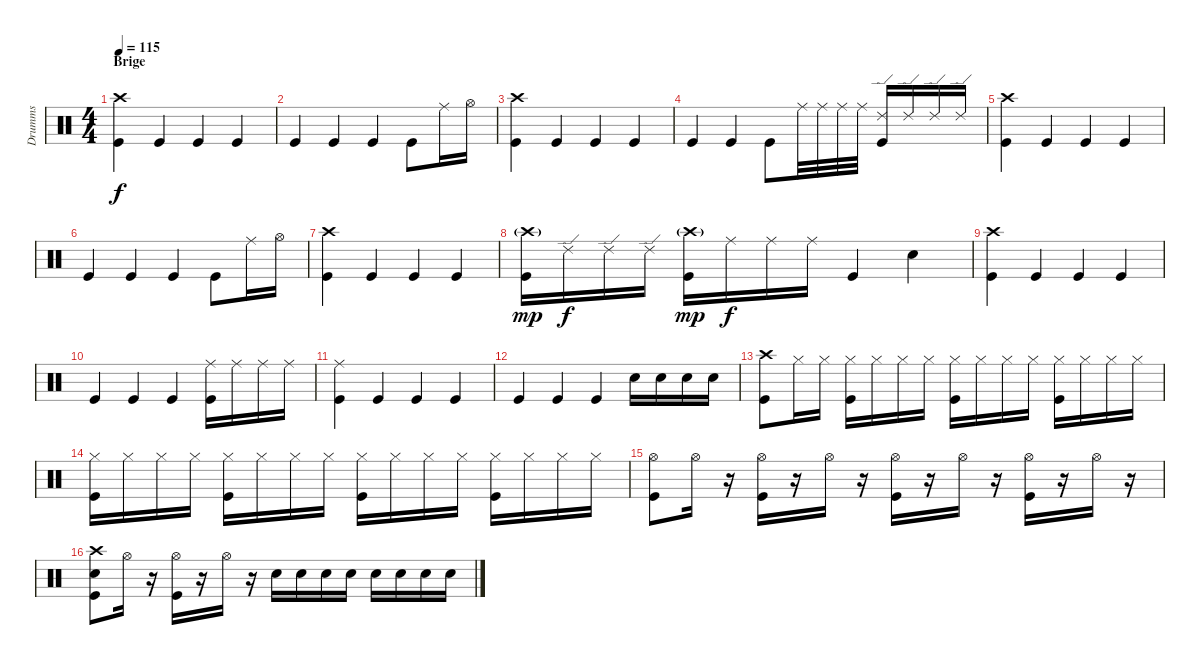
\track ("Drumms" "Drumms") {instrument percussion}
\staff {score}
\articulation defaults
\ts (4 4)
\section ("" "Brige")
\tempo 115
\clef neutral
\ks c
("Crash high (hit)" "Kick (hit)").4{dy f} "Kick (hit)".4 "Kick (hit)".4 "Kick (hit)".4 |
"Kick (hit)".4 "Kick (hit)".4 "Kick (hit)".4 "Kick (hit)".8 "Ride (middle)".16 "Hi-Hat (open)".16 |
("Crash high (hit)" "Kick (hit)").4 "Kick (hit)".4 "Kick (hit)".4 "Kick (hit)".4 |
"Kick (hit)".4 "Kick (hit)".4 "Kick (hit)".8 "Ride (middle)".32 "Ride (middle)".32 "Ride (middle)".32 "Ride (middle)".32 ("Ride (edge) 2" "Kick (hit)").16 "Ride (edge) 2".16 "Ride (edge) 2".16 "Ride (edge) 2".16 |
("Crash high (hit)" "Kick (hit)").4 "Kick (hit)".4 "Kick (hit)".4 "Kick (hit)".4 |
"Kick (hit)".4 "Kick (hit)".4 "Kick (hit)".4 "Kick (hit)".8 "Ride (middle)".16 "Hi-Hat (open)".16 |
("Crash high (hit)" "Kick (hit)").4 "Kick (hit)".4 "Kick (hit)".4 "Kick (hit)".4 |
("Crash high (hit)"{g} "Kick (hit)").16{dy mp} "Ride (edge) 2".16{dy f} "Ride (edge) 2".16 "Ride (edge) 2".16 ("Crash high (hit)"{g} "Kick (hit)").16{dy mp} "Ride (middle)".16{dy f} "Ride (middle)".16 "Ride (middle)".16 "Kick (hit)".4 "Snare (hit) 2".4 |
("Crash high (hit)" "Kick (hit)").4 "Kick (hit)".4 "Kick (hit)".4 "Kick (hit)".4 |
"Kick (hit)".4 "Kick (hit)".4 "Kick (hit)".4 ("Ride (middle)" "Kick (hit)").16 "Ride (middle)".16 "Ride (middle)".16 "Ride (middle)".16 |
("Ride (middle)" "Kick (hit)").4 "Kick (hit)".4 "Kick (hit)".4 "Kick (hit)".4 |
"Kick (hit)".4 "Kick (hit)".4 "Kick (hit)".4 "Snare (hit) 2".16 "Snare (hit) 2".16 "Snare (hit) 2".16 "Snare (hit) 2".16 |
("Crash high (hit)" "Kick (hit)").8 "Hi-Hat (closed)".16 "Hi-Hat (closed)".16 ("Hi-Hat (closed)" "Kick (hit)").16 "Hi-Hat (closed)".16 "Hi-Hat (closed)".16 "Hi-Hat (closed)".16 ("Hi-Hat (closed)" "Kick (hit)").16 "Hi-Hat (closed)".16 "Hi-Hat (closed)".16 "Hi-Hat (closed)".16 ("Hi-Hat (closed)" "Kick (hit)").16 "Hi-Hat (closed)".16 "Hi-Hat (closed)".16 "Hi-Hat (closed)".16 |
("Hi-Hat (closed)" "Kick (hit)").16 "Hi-Hat (closed)".16 "Hi-Hat (closed)".16 "Hi-Hat (closed)".16 ("Hi-Hat (closed)" "Kick (hit)").16 "Hi-Hat (closed)".16 "Hi-Hat (closed)".16 "Hi-Hat (closed)".16 ("Hi-Hat (closed)" "Kick (hit)").16 "Hi-Hat (closed)".16 "Hi-Hat (closed)".16 "Hi-Hat (closed)".16 ("Hi-Hat (closed)" "Kick (hit)").16 "Hi-Hat (closed)".16 "Hi-Hat (closed)".16 "Hi-Hat (closed)".16 |
("Hi-Hat (open)" "Kick (hit)").8 "Hi-Hat (open)".16 r.16 ("Hi-Hat (open)" "Kick (hit)").16 r.16 "Hi-Hat (open)".16 r.16 ("Hi-Hat (open)" "Kick (hit)").16 r.16 "Hi-Hat (open)".16 r.16 ("Hi-Hat (open)" "Kick (hit)").16 r.16 "Hi-Hat (open)".16 r.16 |
("Crash high (hit)" "Snare (hit) 2" "Kick (hit)").8 "Hi-Hat (open)".16 r.16 ("Hi-Hat (open)" "Kick (hit)").16 r.16 "Hi-Hat (open)".16 r.16 "Snare (hit) 2".16 "Snare (hit) 2".16 "Snare (hit) 2".16 "Snare (hit) 2".16 "Snare (hit) 2".16 "Snare (hit) 2".16 "Snare (hit) 2".16 "Snare (hit) 2".16
